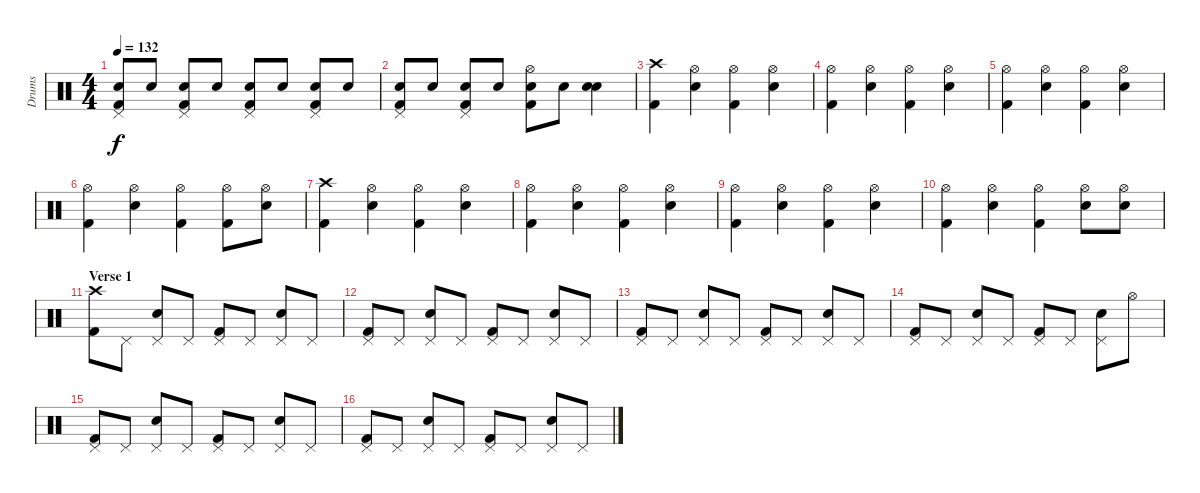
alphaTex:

\track ("Drums" "Drums") {instrument percussion}
\staff {score}
\articulation defaults
\ts (4 4)
\tempo 132
\clef neutral
\ks c
("Snare (hit) 2" "Kick (hit) 2" "Pedal Hi-Hat (hit)").8{dy f} "Snare (hit) 2".8 ("Snare (hit) 2" "Kick (hit) 2" "Pedal Hi-Hat (hit)").8 "Snare (hit) 2".8 ("Snare (hit) 2" "Kick (hit) 2" "Pedal Hi-Hat (hit)").8 "Snare (hit) 2".8 ("Snare (hit) 2" "Kick (hit) 2" "Pedal Hi-Hat (hit)").8 "Snare (hit) 2".8 |
("Snare (hit) 2" "Kick (hit) 2" "Pedal Hi-Hat (hit)").8 "Snare (hit) 2".8 ("Snare (hit) 2" "Kick (hit) 2" "Pedal Hi-Hat (hit)").8 "Snare (hit) 2".8 ("Snare (hit) 2" "Kick (hit) 2" "Hi-Hat (open)").8 "Snare (hit) 2".8 ("Snare (hit) 2" "Snare (hit) 2").4{bd 120} |
("Crash high (hit)" "Kick (hit) 2").4 ("Hi-Hat (open)" "Snare (hit) 2").4 ("Hi-Hat (open)" "Kick (hit) 2").4 ("Hi-Hat (open)" "Snare (hit) 2").4 |
("Hi-Hat (open)" "Kick (hit) 2").4 ("Hi-Hat (open)" "Snare (hit) 2").4 ("Hi-Hat (open)" "Kick (hit) 2").4 ("Hi-Hat (open)" "Snare (hit) 2").4 |
("Hi-Hat (open)" "Kick (hit) 2").4 ("Hi-Hat (open)" "Snare (hit) 2").4 ("Hi-Hat (open)" "Kick (hit) 2").4 ("Hi-Hat (open)" "Snare (hit) 2").4 |
("Hi-Hat (open)" "Kick (hit) 2").4 ("Hi-Hat (open)" "Snare (hit) 2").4 ("Hi-Hat (open)" "Kick (hit) 2").4 ("Hi-Hat (open)" "Kick (hit) 2").8 ("Snare (hit) 2" "Hi-Hat (open)").8 |
("Crash high (hit)" "Kick (hit) 2").4 ("Hi-Hat (open)" "Snare (hit) 2").4 ("Hi-Hat (open)" "Kick (hit) 2").4 ("Hi-Hat (open)" "Snare (hit) 2").4 |
("Hi-Hat (open)" "Kick (hit) 2").4 ("Hi-Hat (open)" "Snare (hit) 2").4 ("Hi-Hat (open)" "Kick (hit) 2").4 ("Hi-Hat (open)" "Snare (hit) 2").4 |
("Hi-Hat (open)" "Kick (hit) 2").4 ("Hi-Hat (open)" "Snare (hit) 2").4 ("Hi-Hat (open)" "Kick (hit) 2").4 ("Hi-Hat (open)" "Snare (hit) 2").4 |
("Hi-Hat (open)" "Kick (hit) 2").4 ("Hi-Hat (open)" "Snare (hit) 2").4 ("Hi-Hat (open)" "Kick (hit) 2").4 ("Hi-Hat (open)" "Snare (hit) 2").8 ("Hi-Hat (open)" "Snare (hit) 2").8 |
\section ("" "Verse 1")
("Crash high (hit)" "Kick (hit) 2").8 "Pedal Hi-Hat (hit)".8 ("Pedal Hi-Hat (hit)" "Snare (hit) 2").8 "Pedal Hi-Hat (hit)".8 ("Pedal Hi-Hat (hit)" "Kick (hit) 2").8 "Pedal Hi-Hat (hit)".8 ("Pedal Hi-Hat (hit)" "Snare (hit) 2").8 "Pedal Hi-Hat (hit)".8 |
("Pedal Hi-Hat (hit)" "Kick (hit) 2").8 "Pedal Hi-Hat (hit)".8 ("Pedal Hi-Hat (hit)" "Snare (hit) 2").8 "Pedal Hi-Hat (hit)".8 ("Pedal Hi-Hat (hit)" "Kick (hit) 2").8 "Pedal Hi-Hat (hit)".8 ("Pedal Hi-Hat (hit)" "Snare (hit) 2").8 "Pedal Hi-Hat (hit)".8 |
("Pedal Hi-Hat (hit)" "Kick (hit) 2").8 "Pedal Hi-Hat (hit)".8 ("Pedal Hi-Hat (hit)" "Snare (hit) 2").8 "Pedal Hi-Hat (hit)".8 ("Pedal Hi-Hat (hit)" "Kick (hit) 2").8 "Pedal Hi-Hat (hit)".8 ("Pedal Hi-Hat (hit)" "Snare (hit) 2").8 "Pedal Hi-Hat (hit)".8 |
("Pedal Hi-Hat (hit)" "Kick (hit) 2").8 "Pedal Hi-Hat (hit)".8 ("Pedal Hi-Hat (hit)" "Snare (hit) 2").8 "Pedal Hi-Hat (hit)".8 ("Pedal Hi-Hat (hit)" "Kick (hit) 2").8 "Pedal Hi-Hat (hit)".8 ("Pedal Hi-Hat (hit)" "Snare (hit) 2").8 "Hi-Hat (open)".8 |
("Pedal Hi-Hat (hit)" "Kick (hit) 2").8 "Pedal Hi-Hat (hit)".8 ("Pedal Hi-Hat (hit)" "Snare (hit) 2").8 "Pedal Hi-Hat (hit)".8 ("Pedal Hi-Hat (hit)" "Kick (hit) 2").8 "Pedal Hi-Hat (hit)".8 ("Pedal Hi-Hat (hit)" "Snare (hit) 2").8 "Pedal Hi-Hat (hit)".8 |
("Pedal Hi-Hat (hit)" "Kick (hit) 2").8 "Pedal Hi-Hat (hit)".8 ("Pedal Hi-Hat (hit)" "Snare (hit) 2").8 "Pedal Hi-Hat (hit)".8 ("Pedal Hi-Hat (hit)" "Kick (hit) 2").8 "Pedal Hi-Hat (hit)".8 ("Pedal Hi-Hat (hit)" "Snare (hit) 2").8 "Pedal Hi-Hat (hit)".8
